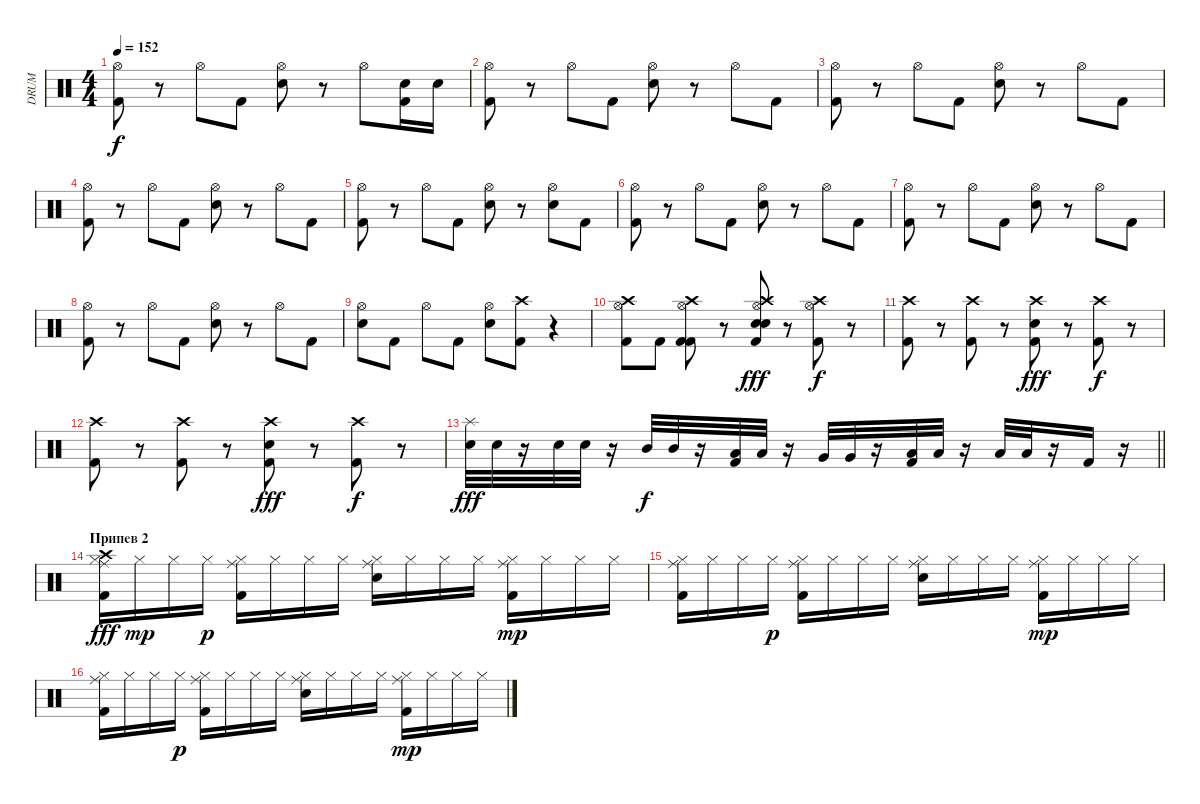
\track ("DRUM" "DRUM") {instrument percussion}
\staff {score}
\articulation defaults
\ts (4 4)
\tempo 152
\clef neutral
\ks c
("Kick (hit) 2" "Hi-Hat (open)").8{dy f} r.8 "Hi-Hat (open)".8 "Kick (hit) 2".8 ("Electric Snare (hit)" "Hi-Hat (open)").8 r.8 "Hi-Hat (open)".8 ("Electric Snare (hit)" "Kick (hit) 2").16 "Electric Snare (hit)".16 |
("Kick (hit) 2" "Hi-Hat (open)").8 r.8 "Hi-Hat (open)".8 "Kick (hit) 2".8 ("Electric Snare (hit)" "Hi-Hat (open)").8 r.8 "Hi-Hat (open)".8 "Kick (hit) 2".8 |
("Kick (hit) 2" "Hi-Hat (open)").8 r.8 "Hi-Hat (open)".8 "Kick (hit) 2".8 ("Electric Snare (hit)" "Hi-Hat (open)").8 r.8 "Hi-Hat (open)".8 "Kick (hit) 2".8 |
("Kick (hit) 2" "Hi-Hat (open)").8 r.8 "Hi-Hat (open)".8 "Kick (hit) 2".8 ("Electric Snare (hit)" "Hi-Hat (open)").8 r.8 "Hi-Hat (open)".8 "Kick (hit) 2".8 |
("Kick (hit) 2" "Hi-Hat (open)").8 r.8 "Hi-Hat (open)".8 "Kick (hit) 2".8 ("Electric Snare (hit)" "Hi-Hat (open)").8 r.8 ("Electric Snare (hit)" "Hi-Hat (open)").8 "Kick (hit) 2".8 |
("Kick (hit) 2" "Hi-Hat (open)").8 r.8 "Hi-Hat (open)".8 "Kick (hit) 2".8 ("Electric Snare (hit)" "Hi-Hat (open)").8 r.8 "Hi-Hat (open)".8 "Kick (hit) 2".8 |
("Kick (hit) 2" "Hi-Hat (open)").8 r.8 "Hi-Hat (open)".8 "Kick (hit) 2".8 ("Electric Snare (hit)" "Hi-Hat (open)").8 r.8 "Hi-Hat (open)".8 "Kick (hit) 2".8 |
("Kick (hit) 2" "Hi-Hat (open)").8 r.8 "Hi-Hat (open)".8 "Kick (hit) 2".8 ("Electric Snare (hit)" "Hi-Hat (open)").8 r.8 "Hi-Hat (open)".8 "Kick (hit) 2".8 |
("Electric Snare (hit)" "Hi-Hat (open)").8 "Kick (hit) 2".8 "Hi-Hat (open)".8 "Kick (hit) 2".8 ("Electric Snare (hit)" "Hi-Hat (open)").8 ("Kick (hit) 2" "Crash high (hit)").8 r.4 |
("Hi-Hat (open)" "Kick (hit) 2" "Crash high (hit)").8 "Kick (hit) 2".8 ("Hi-Hat (open)" "Kick (hit) 2" "Kick (hit) 2" "Crash high (hit)").8 r.8 ("Hi-Hat (open)" "Snare (hit) 2" "Kick (hit) 2" "Crash high (hit)" "Electric Snare (hit)").8{dy fff} r.8 ("Hi-Hat (open)" "Kick (hit) 2" "Crash high (hit)").8{dy f} r.8 |
("Kick (hit) 2" "Crash high (hit)").8 r.8 ("Kick (hit) 2" "Crash high (hit)").8 r.8 ("Kick (hit) 2" "Crash high (hit)" "Electric Snare (hit)").8{dy fff} r.8 ("Kick (hit) 2" "Crash high (hit)").8{dy f} r.8 |
("Kick (hit) 2" "Crash high (hit)").8 r.8 ("Kick (hit) 2" "Crash high (hit)").8 r.8 ("Kick (hit) 2" "Crash high (hit)" "Electric Snare (hit)").8{dy fff} r.8 ("Kick (hit) 2" "Crash high (hit)").8{dy f} r.8 |
\barLineRight lightlight
("Splash (hit)" "Snare (hit) 2").32{dy fff} "Snare (hit) 2".32 r.16 "Snare (hit) 2".32 "Snare (hit) 2".32 r.16 "Mid Tom (hit)".32{dy f} "Mid Tom (hit)".32 r.16 ("Kick (hit) 2" "Low Tom (hit)").32 "Low Tom (hit)".32 r.16 "Very Low Tom (hit)".32 "Very Low Tom (hit)".32 r.16 ("Kick (hit) 2" "Low Floor Tom (hit)").32 "Low Floor Tom (hit)".32 r.16 "Low Floor Tom (hit)".32 "Low Floor Tom (hit)".32 r.16 "Kick (hit) 2".16 r.16 |
\section ("" "Припев 2")
("Ride (middle)" "Hi-Hat (closed)" "Kick (hit) 2" "Crash high (hit)").16{dy fff} "Hi-Hat (closed)".16{dy mp} "Hi-Hat (closed)".16 "Hi-Hat (closed)".16{dy p} ("Ride (middle)" "Hi-Hat (closed)" "Kick (hit) 2").16 "Hi-Hat (closed)".16 "Hi-Hat (closed)".16 "Hi-Hat (closed)".16 ("Ride (middle)" "Hi-Hat (closed)" "Snare (hit) 2").16 "Hi-Hat (closed)".16 "Hi-Hat (closed)".16 "Hi-Hat (closed)".16 ("Ride (middle)" "Hi-Hat (closed)" "Kick (hit) 2").16{dy mp} "Hi-Hat (closed)".16 "Hi-Hat (closed)".16 "Hi-Hat (closed)".16 |
("Ride (middle)" "Hi-Hat (closed)" "Kick (hit) 2").16 "Hi-Hat (closed)".16 "Hi-Hat (closed)".16 "Hi-Hat (closed)".16{dy p} ("Ride (middle)" "Hi-Hat (closed)" "Kick (hit) 2").16 "Hi-Hat (closed)".16 "Hi-Hat (closed)".16 "Hi-Hat (closed)".16 ("Ride (middle)" "Hi-Hat (closed)" "Snare (hit) 2").16 "Hi-Hat (closed)".16 "Hi-Hat (closed)".16 "Hi-Hat (closed)".16 ("Ride (middle)" "Hi-Hat (closed)" "Kick (hit) 2").16{dy mp} "Hi-Hat (closed)".16 "Hi-Hat (closed)".16 "Hi-Hat (closed)".16 |
("Ride (middle)" "Hi-Hat (closed)" "Kick (hit) 2").16 "Hi-Hat (closed)".16 "Hi-Hat (closed)".16 "Hi-Hat (closed)".16{dy p} ("Ride (middle)" "Hi-Hat (closed)" "Kick (hit) 2").16 "Hi-Hat (closed)".16 "Hi-Hat (closed)".16 "Hi-Hat (closed)".16 ("Ride (middle)" "Hi-Hat (closed)" "Snare (hit) 2").16 "Hi-Hat (closed)".16 "Hi-Hat (closed)".16 "Hi-Hat (closed)".16 ("Ride (middle)" "Hi-Hat (closed)" "Kick (hit) 2").16{dy mp} "Hi-Hat (closed)".16 "Hi-Hat (closed)".16 "Hi-Hat (closed)".16
